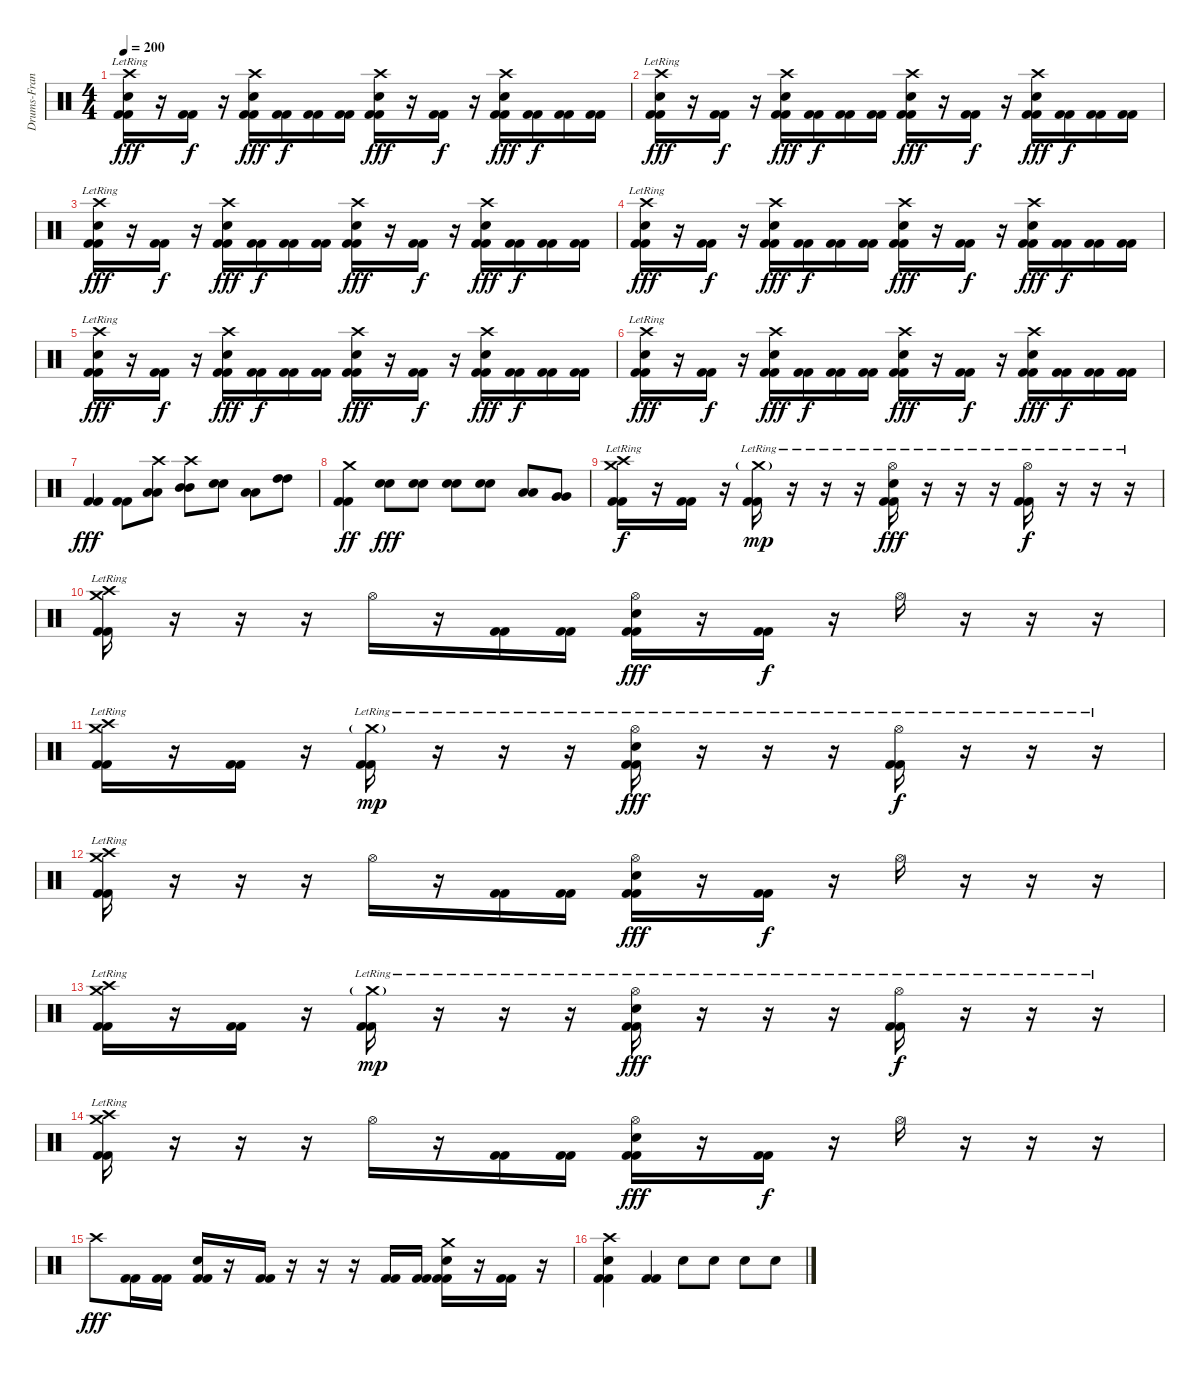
\track ("Drums-Francis Mark" "Drums-Fran") {instrument percussion}
\staff {score}
\articulation defaults
\ts (4 4)
\tempo 200
\clef neutral
\ks c
("Crash high (hit)"{lr} "Electric Snare (hit)" "Kick (hit) 2" "Kick (hit) 2").16{dy fff} r.16 ("Kick (hit) 2" "Kick (hit) 2").16{dy f} r.16 ("Crash high (hit)" "Electric Snare (hit)" "Kick (hit) 2" "Kick (hit) 2").16{dy fff} ("Kick (hit) 2" "Kick (hit) 2").16{dy f} ("Kick (hit) 2" "Kick (hit) 2").16 ("Kick (hit) 2" "Kick (hit) 2").16 ("Crash high (hit)" "Electric Snare (hit)" "Kick (hit) 2" "Kick (hit) 2").16{dy fff} r.16 ("Kick (hit) 2" "Kick (hit) 2").16{dy f} r.16 ("Crash high (hit)" "Electric Snare (hit)" "Kick (hit) 2" "Kick (hit) 2").16{dy fff} ("Kick (hit) 2" "Kick (hit) 2").16{dy f} ("Kick (hit) 2" "Kick (hit) 2").16 ("Kick (hit) 2" "Kick (hit) 2").16 |
("Crash high (hit)"{lr} "Electric Snare (hit)" "Kick (hit) 2" "Kick (hit) 2").16{dy fff} r.16 ("Kick (hit) 2" "Kick (hit) 2").16{dy f} r.16 ("Crash high (hit)" "Electric Snare (hit)" "Kick (hit) 2" "Kick (hit) 2").16{dy fff} ("Kick (hit) 2" "Kick (hit) 2").16{dy f} ("Kick (hit) 2" "Kick (hit) 2").16 ("Kick (hit) 2" "Kick (hit) 2").16 ("Crash high (hit)" "Electric Snare (hit)" "Kick (hit) 2" "Kick (hit) 2").16{dy fff} r.16 ("Kick (hit) 2" "Kick (hit) 2").16{dy f} r.16 ("Crash high (hit)" "Electric Snare (hit)" "Kick (hit) 2" "Kick (hit) 2").16{dy fff} ("Kick (hit) 2" "Kick (hit) 2").16{dy f} ("Kick (hit) 2" "Kick (hit) 2").16 ("Kick (hit) 2" "Kick (hit) 2").16 |
("Crash high (hit)"{lr} "Electric Snare (hit)" "Kick (hit) 2" "Kick (hit) 2").16{dy fff} r.16 ("Kick (hit) 2" "Kick (hit) 2").16{dy f} r.16 ("Crash high (hit)" "Electric Snare (hit)" "Kick (hit) 2" "Kick (hit) 2").16{dy fff} ("Kick (hit) 2" "Kick (hit) 2").16{dy f} ("Kick (hit) 2" "Kick (hit) 2").16 ("Kick (hit) 2" "Kick (hit) 2").16 ("Crash high (hit)" "Electric Snare (hit)" "Kick (hit) 2" "Kick (hit) 2").16{dy fff} r.16 ("Kick (hit) 2" "Kick (hit) 2").16{dy f} r.16 ("Crash high (hit)" "Electric Snare (hit)" "Kick (hit) 2" "Kick (hit) 2").16{dy fff} ("Kick (hit) 2" "Kick (hit) 2").16{dy f} ("Kick (hit) 2" "Kick (hit) 2").16 ("Kick (hit) 2" "Kick (hit) 2").16 |
("Crash high (hit)"{lr} "Electric Snare (hit)" "Kick (hit) 2" "Kick (hit) 2").16{dy fff} r.16 ("Kick (hit) 2" "Kick (hit) 2").16{dy f} r.16 ("Crash high (hit)" "Electric Snare (hit)" "Kick (hit) 2" "Kick (hit) 2").16{dy fff} ("Kick (hit) 2" "Kick (hit) 2").16{dy f} ("Kick (hit) 2" "Kick (hit) 2").16 ("Kick (hit) 2" "Kick (hit) 2").16 ("Crash high (hit)" "Electric Snare (hit)" "Kick (hit) 2" "Kick (hit) 2").16{dy fff} r.16 ("Kick (hit) 2" "Kick (hit) 2").16{dy f} r.16 ("Crash high (hit)" "Electric Snare (hit)" "Kick (hit) 2" "Kick (hit) 2").16{dy fff} ("Kick (hit) 2" "Kick (hit) 2").16{dy f} ("Kick (hit) 2" "Kick (hit) 2").16 ("Kick (hit) 2" "Kick (hit) 2").16 |
("Crash high (hit)"{lr} "Electric Snare (hit)" "Kick (hit) 2" "Kick (hit) 2").16{dy fff} r.16 ("Kick (hit) 2" "Kick (hit) 2").16{dy f} r.16 ("Crash high (hit)" "Electric Snare (hit)" "Kick (hit) 2" "Kick (hit) 2").16{dy fff} ("Kick (hit) 2" "Kick (hit) 2").16{dy f} ("Kick (hit) 2" "Kick (hit) 2").16 ("Kick (hit) 2" "Kick (hit) 2").16 ("Crash high (hit)" "Electric Snare (hit)" "Kick (hit) 2" "Kick (hit) 2").16{dy fff} r.16 ("Kick (hit) 2" "Kick (hit) 2").16{dy f} r.16 ("Crash high (hit)" "Electric Snare (hit)" "Kick (hit) 2" "Kick (hit) 2").16{dy fff} ("Kick (hit) 2" "Kick (hit) 2").16{dy f} ("Kick (hit) 2" "Kick (hit) 2").16 ("Kick (hit) 2" "Kick (hit) 2").16 |
("Crash high (hit)"{lr} "Electric Snare (hit)" "Kick (hit) 2" "Kick (hit) 2").16{dy fff} r.16 ("Kick (hit) 2" "Kick (hit) 2").16{dy f} r.16 ("Crash high (hit)" "Electric Snare (hit)" "Kick (hit) 2" "Kick (hit) 2").16{dy fff} ("Kick (hit) 2" "Kick (hit) 2").16{dy f} ("Kick (hit) 2" "Kick (hit) 2").16 ("Kick (hit) 2" "Kick (hit) 2").16 ("Crash high (hit)" "Electric Snare (hit)" "Kick (hit) 2" "Kick (hit) 2").16{dy fff} r.16 ("Kick (hit) 2" "Kick (hit) 2").16{dy f} r.16 ("Crash high (hit)" "Electric Snare (hit)" "Kick (hit) 2" "Kick (hit) 2").16{dy fff} ("Kick (hit) 2" "Kick (hit) 2").16{dy f} ("Kick (hit) 2" "Kick (hit) 2").16 ("Kick (hit) 2" "Kick (hit) 2").16 |
("Kick (hit) 2" "Kick (hit) 2").4{dy fff} ("Kick (hit) 2" "Kick (hit) 2").8 ("Crash high (hit)" "Low Tom (hit)" "Low Tom (hit)").8 ("Crash high (hit)" "Mid Tom (hit)" "Mid Tom (hit)").8 ("Electric Snare (hit)" "Electric Snare (hit)").8 ("Low Tom (hit)" "Low Tom (hit)").8 ("High Tom (hit)" "High Tom (hit)").8 |
("Crash medium (hit)" "Kick (hit) 2" "Kick (hit) 2").4{dy ff} ("Electric Snare (hit)" "Electric Snare (hit)").8{dy fff} ("Electric Snare (hit)" "Electric Snare (hit)").8 ("Electric Snare (hit)" "Electric Snare (hit)").8 ("Electric Snare (hit)" "Electric Snare (hit)").8 ("Low Tom (hit)" "Low Tom (hit)").8 ("Very Low Tom (hit)" "Very Low Tom (hit)").8 |
("Crash high (hit)"{lr} "Crash medium (hit)"{lr} "Kick (hit) 2" "Kick (hit) 2").16{dy f} r.16 ("Kick (hit) 2" "Kick (hit) 2").16 r.16 ("Crash medium (hit)"{g lr} "Kick (hit) 2" "Kick (hit) 2").16{dy mp} r.16 r.16 r.16 ("Hi-Hat (open)"{lr} "Electric Snare (hit)" "Kick (hit) 2" "Kick (hit) 2").16{dy fff} r.16 r.16 r.16 ("Hi-Hat (open)"{lr} "Kick (hit) 2" "Kick (hit) 2").16{dy f} r.16 r.16 r.16 |
("Crash high (hit)"{lr} "Crash medium (hit)"{lr} "Kick (hit) 2" "Kick (hit) 2").16 r.16 r.16 r.16 "Hi-Hat (open)".16 r.16 ("Kick (hit) 2" "Kick (hit) 2").16 ("Kick (hit) 2" "Kick (hit) 2").16 ("Hi-Hat (open)" "Electric Snare (hit)" "Kick (hit) 2" "Kick (hit) 2").16{dy fff} r.16 ("Kick (hit) 2" "Kick (hit) 2").16{dy f} r.16 "Hi-Hat (open)".16 r.16 r.16 r.16 |
("Crash high (hit)"{lr} "Crash medium (hit)"{lr} "Kick (hit) 2" "Kick (hit) 2").16 r.16 ("Kick (hit) 2" "Kick (hit) 2").16 r.16 ("Crash medium (hit)"{g lr} "Kick (hit) 2" "Kick (hit) 2").16{dy mp} r.16 r.16 r.16 ("Hi-Hat (open)"{lr} "Electric Snare (hit)" "Kick (hit) 2" "Kick (hit) 2").16{dy fff} r.16 r.16 r.16 ("Hi-Hat (open)"{lr} "Kick (hit) 2" "Kick (hit) 2").16{dy f} r.16 r.16 r.16 |
("Crash high (hit)"{lr} "Crash medium (hit)"{lr} "Kick (hit) 2" "Kick (hit) 2").16 r.16 r.16 r.16 "Hi-Hat (open)".16 r.16 ("Kick (hit) 2" "Kick (hit) 2").16 ("Kick (hit) 2" "Kick (hit) 2").16 ("Hi-Hat (open)" "Electric Snare (hit)" "Kick (hit) 2" "Kick (hit) 2").16{dy fff} r.16 ("Kick (hit) 2" "Kick (hit) 2").16{dy f} r.16 "Hi-Hat (open)".16 r.16 r.16 r.16 |
("Crash high (hit)"{lr} "Crash medium (hit)"{lr} "Kick (hit) 2" "Kick (hit) 2").16 r.16 ("Kick (hit) 2" "Kick (hit) 2").16 r.16 ("Crash medium (hit)"{g lr} "Kick (hit) 2" "Kick (hit) 2").16{dy mp} r.16 r.16 r.16 ("Hi-Hat (open)"{lr} "Electric Snare (hit)" "Kick (hit) 2" "Kick (hit) 2").16{dy fff} r.16 r.16 r.16 ("Hi-Hat (open)"{lr} "Kick (hit) 2" "Kick (hit) 2").16{dy f} r.16 r.16 r.16 |
("Crash high (hit)"{lr} "Crash medium (hit)"{lr} "Kick (hit) 2" "Kick (hit) 2").16 r.16 r.16 r.16 "Hi-Hat (open)".16 r.16 ("Kick (hit) 2" "Kick (hit) 2").16 ("Kick (hit) 2" "Kick (hit) 2").16 ("Hi-Hat (open)" "Electric Snare (hit)" "Kick (hit) 2" "Kick (hit) 2").16{dy fff} r.16 ("Kick (hit) 2" "Kick (hit) 2").16{dy f} r.16 "Hi-Hat (open)".16 r.16 r.16 r.16 |
"Crash high (hit)".8{dy fff} ("Kick (hit) 2" "Kick (hit) 2").16 ("Kick (hit) 2" "Kick (hit) 2").16 ("Electric Snare (hit)" "Kick (hit) 2" "Kick (hit) 2").16 r.16 ("Kick (hit) 2" "Kick (hit) 2").16 r.16 r.16 r.16 ("Kick (hit) 2" "Kick (hit) 2").16 ("Kick (hit) 2" "Kick (hit) 2").16 ("Crash medium (hit)" "Electric Snare (hit)" "Kick (hit) 2" "Kick (hit) 2").16 r.16 ("Kick (hit) 2" "Kick (hit) 2").16 r.16 |
("Crash high (hit)" "Electric Snare (hit)" "Kick (hit) 2" "Kick (hit) 2").4 ("Kick (hit) 2" "Kick (hit) 2").4 "Electric Snare (hit)".8 "Electric Snare (hit)".8 "Electric Snare (hit)".8 "Electric Snare (hit)".8
